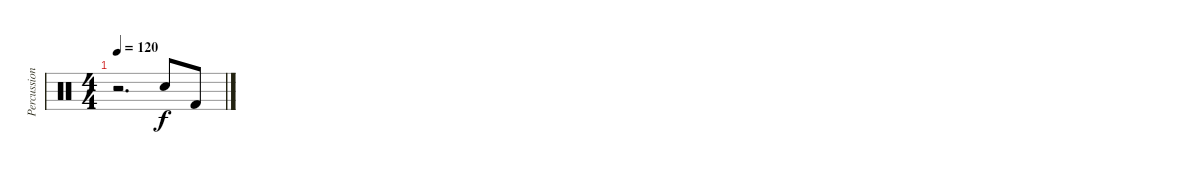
\track ("Percussion" "Percussion") {instrument percussion}
\staff {score}
\articulation defaults
\ts (4 4)
\tempo 120
\clef neutral
\ks c
r.2{d dy f} "Snare (hit) 2".8 "Kick (hit) 2".8
